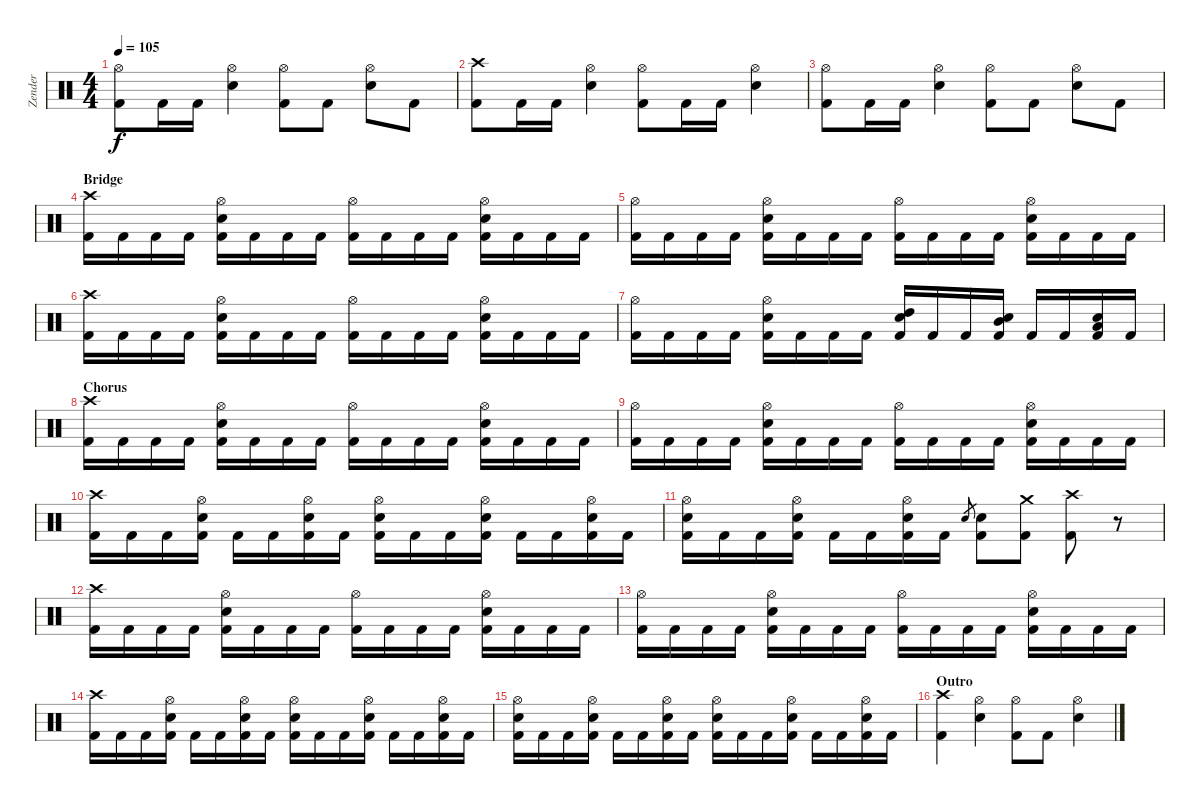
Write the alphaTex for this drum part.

\track ("Zender" "Zender") {instrument percussion}
\staff {score}
\articulation defaults
\ts (4 4)
\tempo 105
\clef neutral
\ks c
("Hi-Hat (open)" "Kick (hit) 2").8{dy f} "Kick (hit) 2".16 "Kick (hit) 2".16 ("Electric Snare (hit)" "Hi-Hat (open)").4 ("Hi-Hat (open)" "Kick (hit) 2").8 "Kick (hit) 2".8 ("Electric Snare (hit)" "Hi-Hat (open)").8 "Kick (hit) 2".8 |
("Crash high (hit)" "Kick (hit) 2").8 "Kick (hit) 2".16 "Kick (hit) 2".16 ("Electric Snare (hit)" "Hi-Hat (open)").4 ("Hi-Hat (open)" "Kick (hit) 2").8 "Kick (hit) 2".16 "Kick (hit) 2".16 ("Electric Snare (hit)" "Hi-Hat (open)").4 |
("Hi-Hat (open)" "Kick (hit) 2").8 "Kick (hit) 2".16 "Kick (hit) 2".16 ("Electric Snare (hit)" "Hi-Hat (open)").4 ("Hi-Hat (open)" "Kick (hit) 2").8 "Kick (hit) 2".8 ("Electric Snare (hit)" "Hi-Hat (open)").8 "Kick (hit) 2".8 |
\section ("" "Bridge")
("Crash high (hit)" "Kick (hit) 2").16 "Kick (hit) 2".16 "Kick (hit) 2".16 "Kick (hit) 2".16 ("Hi-Hat (open)" "Electric Snare (hit)" "Kick (hit) 2").16 "Kick (hit) 2".16 "Kick (hit) 2".16 "Kick (hit) 2".16 ("Hi-Hat (open)" "Kick (hit) 2").16 "Kick (hit) 2".16 "Kick (hit) 2".16 "Kick (hit) 2".16 ("Hi-Hat (open)" "Electric Snare (hit)" "Kick (hit) 2").16 "Kick (hit) 2".16 "Kick (hit) 2".16 "Kick (hit) 2".16 |
("Hi-Hat (open)" "Kick (hit) 2").16 "Kick (hit) 2".16 "Kick (hit) 2".16 "Kick (hit) 2".16 ("Hi-Hat (open)" "Electric Snare (hit)" "Kick (hit) 2").16 "Kick (hit) 2".16 "Kick (hit) 2".16 "Kick (hit) 2".16 ("Hi-Hat (open)" "Kick (hit) 2").16 "Kick (hit) 2".16 "Kick (hit) 2".16 "Kick (hit) 2".16 ("Hi-Hat (open)" "Electric Snare (hit)" "Kick (hit) 2").16 "Kick (hit) 2".16 "Kick (hit) 2".16 "Kick (hit) 2".16 |
("Crash high (hit)" "Kick (hit) 2").16 "Kick (hit) 2".16 "Kick (hit) 2".16 "Kick (hit) 2".16 ("Hi-Hat (open)" "Electric Snare (hit)" "Kick (hit) 2").16 "Kick (hit) 2".16 "Kick (hit) 2".16 "Kick (hit) 2".16 ("Hi-Hat (open)" "Kick (hit) 2").16 "Kick (hit) 2".16 "Kick (hit) 2".16 "Kick (hit) 2".16 ("Hi-Hat (open)" "Electric Snare (hit)" "Kick (hit) 2").16 "Kick (hit) 2".16 "Kick (hit) 2".16 "Kick (hit) 2".16 |
("Hi-Hat (open)" "Kick (hit) 2").16 "Kick (hit) 2".16 "Kick (hit) 2".16 "Kick (hit) 2".16 ("Hi-Hat (open)" "Electric Snare (hit)" "Kick (hit) 2").16 "Kick (hit) 2".16 "Kick (hit) 2".16 "Kick (hit) 2".16 ("Electric Snare (hit)" "High Tom (hit)" "Kick (hit) 2").16 "Kick (hit) 2".16 "Kick (hit) 2".16 ("Electric Snare (hit)" "Mid Tom (hit)" "Kick (hit) 2").16 "Kick (hit) 2".16 "Kick (hit) 2".16 ("Electric Snare (hit)" "Low Tom (hit)" "Kick (hit) 2").16 "Kick (hit) 2".16 |
\section ("" "Chorus")
("Crash high (hit)" "Kick (hit) 2").16 "Kick (hit) 2".16 "Kick (hit) 2".16 "Kick (hit) 2".16 ("Hi-Hat (open)" "Electric Snare (hit)" "Kick (hit) 2").16 "Kick (hit) 2".16 "Kick (hit) 2".16 "Kick (hit) 2".16 ("Hi-Hat (open)" "Kick (hit) 2").16 "Kick (hit) 2".16 "Kick (hit) 2".16 "Kick (hit) 2".16 ("Hi-Hat (open)" "Electric Snare (hit)" "Kick (hit) 2").16 "Kick (hit) 2".16 "Kick (hit) 2".16 "Kick (hit) 2".16 |
("Hi-Hat (open)" "Kick (hit) 2").16 "Kick (hit) 2".16 "Kick (hit) 2".16 "Kick (hit) 2".16 ("Hi-Hat (open)" "Electric Snare (hit)" "Kick (hit) 2").16 "Kick (hit) 2".16 "Kick (hit) 2".16 "Kick (hit) 2".16 ("Hi-Hat (open)" "Kick (hit) 2").16 "Kick (hit) 2".16 "Kick (hit) 2".16 "Kick (hit) 2".16 ("Hi-Hat (open)" "Electric Snare (hit)" "Kick (hit) 2").16 "Kick (hit) 2".16 "Kick (hit) 2".16 "Kick (hit) 2".16 |
("Crash high (hit)" "Kick (hit) 2").16 "Kick (hit) 2".16 "Kick (hit) 2".16 ("Hi-Hat (open)" "Electric Snare (hit)" "Kick (hit) 2").16 "Kick (hit) 2".16 "Kick (hit) 2".16 ("Hi-Hat (open)" "Electric Snare (hit)" "Kick (hit) 2").16 "Kick (hit) 2".16 ("Hi-Hat (open)" "Electric Snare (hit)" "Kick (hit) 2").16 "Kick (hit) 2".16 "Kick (hit) 2".16 ("Hi-Hat (open)" "Electric Snare (hit)" "Kick (hit) 2").16 "Kick (hit) 2".16 "Kick (hit) 2".16 ("Hi-Hat (open)" "Electric Snare (hit)" "Kick (hit) 2").16 "Kick (hit) 2".16 |
("Hi-Hat (open)" "Electric Snare (hit)" "Kick (hit) 2").16 "Kick (hit) 2".16 "Kick (hit) 2".16 ("Hi-Hat (open)" "Electric Snare (hit)" "Kick (hit) 2").16 "Kick (hit) 2".16 "Kick (hit) 2".16 ("Hi-Hat (open)" "Electric Snare (hit)" "Kick (hit) 2").16 "Kick (hit) 2".16 "Electric Snare (hit)".8{gr} ("Electric Snare (hit)" "Kick (hit) 2").8 ("Crash medium (hit)" "Kick (hit) 2").8 ("Crash high (hit)" "Kick (hit) 2").8 r.8 |
("Crash high (hit)" "Kick (hit) 2").16 "Kick (hit) 2".16 "Kick (hit) 2".16 "Kick (hit) 2".16 ("Hi-Hat (open)" "Electric Snare (hit)" "Kick (hit) 2").16 "Kick (hit) 2".16 "Kick (hit) 2".16 "Kick (hit) 2".16 ("Hi-Hat (open)" "Kick (hit) 2").16 "Kick (hit) 2".16 "Kick (hit) 2".16 "Kick (hit) 2".16 ("Hi-Hat (open)" "Electric Snare (hit)" "Kick (hit) 2").16 "Kick (hit) 2".16 "Kick (hit) 2".16 "Kick (hit) 2".16 |
("Hi-Hat (open)" "Kick (hit) 2").16 "Kick (hit) 2".16 "Kick (hit) 2".16 "Kick (hit) 2".16 ("Hi-Hat (open)" "Electric Snare (hit)" "Kick (hit) 2").16 "Kick (hit) 2".16 "Kick (hit) 2".16 "Kick (hit) 2".16 ("Hi-Hat (open)" "Kick (hit) 2").16 "Kick (hit) 2".16 "Kick (hit) 2".16 "Kick (hit) 2".16 ("Hi-Hat (open)" "Electric Snare (hit)" "Kick (hit) 2").16 "Kick (hit) 2".16 "Kick (hit) 2".16 "Kick (hit) 2".16 |
("Crash high (hit)" "Kick (hit) 2").16 "Kick (hit) 2".16 "Kick (hit) 2".16 ("Hi-Hat (open)" "Electric Snare (hit)" "Kick (hit) 2").16 "Kick (hit) 2".16 "Kick (hit) 2".16 ("Hi-Hat (open)" "Electric Snare (hit)" "Kick (hit) 2").16 "Kick (hit) 2".16 ("Hi-Hat (open)" "Electric Snare (hit)" "Kick (hit) 2").16 "Kick (hit) 2".16 "Kick (hit) 2".16 ("Hi-Hat (open)" "Electric Snare (hit)" "Kick (hit) 2").16 "Kick (hit) 2".16 "Kick (hit) 2".16 ("Hi-Hat (open)" "Electric Snare (hit)" "Kick (hit) 2").16 "Kick (hit) 2".16 |
("Hi-Hat (open)" "Electric Snare (hit)" "Kick (hit) 2").16 "Kick (hit) 2".16 "Kick (hit) 2".16 ("Hi-Hat (open)" "Electric Snare (hit)" "Kick (hit) 2").16 "Kick (hit) 2".16 "Kick (hit) 2".16 ("Hi-Hat (open)" "Electric Snare (hit)" "Kick (hit) 2").16 "Kick (hit) 2".16 ("Hi-Hat (open)" "Electric Snare (hit)" "Kick (hit) 2").16 "Kick (hit) 2".16 "Kick (hit) 2".16 ("Hi-Hat (open)" "Electric Snare (hit)" "Kick (hit) 2").16 "Kick (hit) 2".16 "Kick (hit) 2".16 ("Hi-Hat (open)" "Electric Snare (hit)" "Kick (hit) 2").16 "Kick (hit) 2".16 |
\section ("" "Outro")
("Crash high (hit)" "Kick (hit) 2").4 ("Hi-Hat (open)" "Electric Snare (hit)").4 ("Hi-Hat (open)" "Kick (hit) 2").8 "Kick (hit) 2".8 ("Hi-Hat (open)" "Electric Snare (hit)").4
